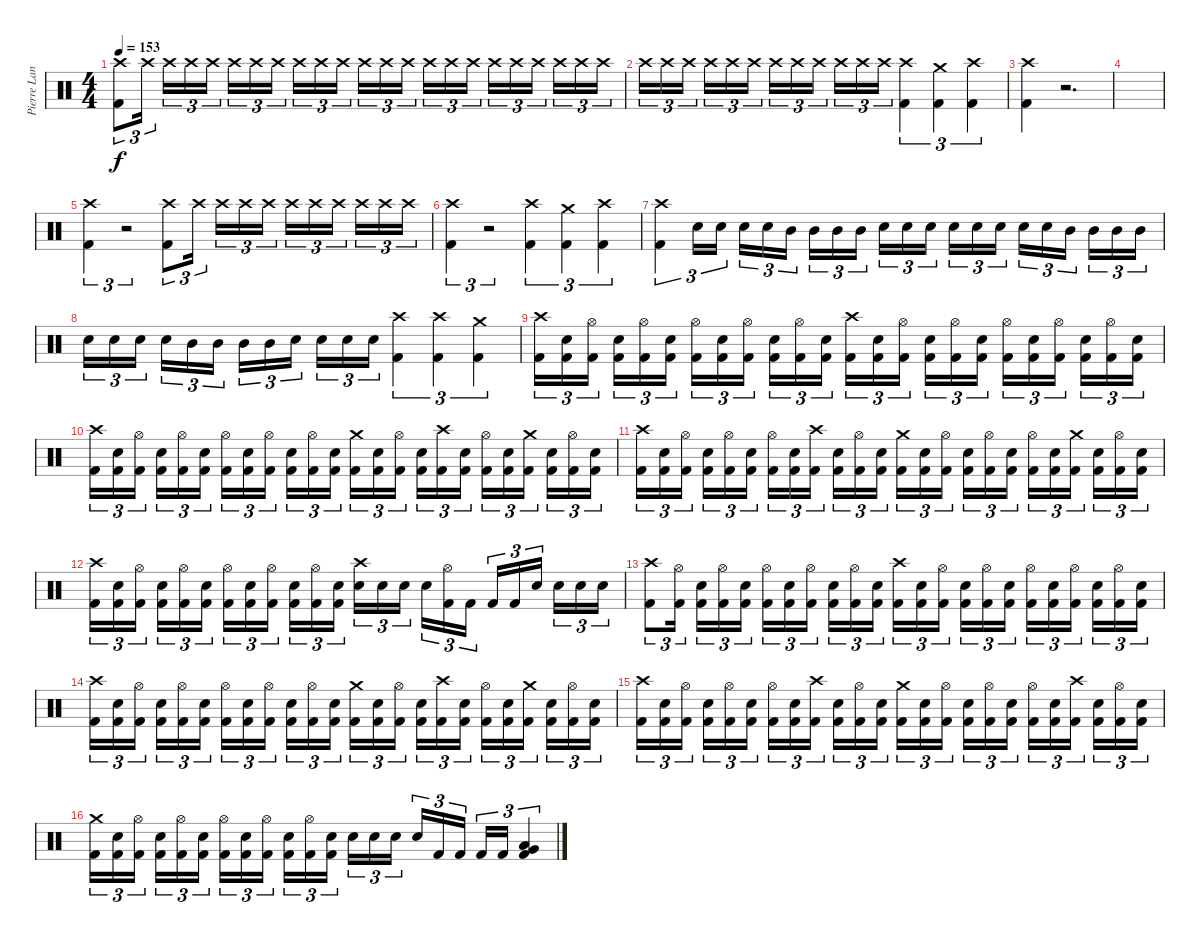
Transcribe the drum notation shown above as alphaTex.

\track ("Pierre Langlois (Drums)" "Pierre Lan") {instrument percussion}
\staff {score}
\articulation defaults
\ts (4 4)
\tempo 153
\clef neutral
\ks c
("Crash high (hit)" "Kick (hit) 2").8{tu (3 2) dy f} "Crash high (hit)".16{tu (3 2)} "Crash high (hit)".16{tu (3 2)} "Crash high (hit)".16{tu (3 2)} "Crash high (hit)".16{tu (3 2)} "Crash high (hit)".16{tu (3 2)} "Crash high (hit)".16{tu (3 2)} "Crash high (hit)".16{tu (3 2)} "Crash high (hit)".16{tu (3 2)} "Crash high (hit)".16{tu (3 2)} "Crash high (hit)".16{tu (3 2)} "Crash high (hit)".16{tu (3 2)} "Crash high (hit)".16{tu (3 2)} "Crash high (hit)".16{tu (3 2)} "Crash high (hit)".16{tu (3 2)} "Crash high (hit)".16{tu (3 2)} "Crash high (hit)".16{tu (3 2)} "Crash high (hit)".16{tu (3 2)} "Crash high (hit)".16{tu (3 2)} "Crash high (hit)".16{tu (3 2)} "Crash high (hit)".16{tu (3 2)} "Crash high (hit)".16{tu (3 2)} "Crash high (hit)".16{tu (3 2)} |
"Crash high (hit)".16{tu (3 2)} "Crash high (hit)".16{tu (3 2)} "Crash high (hit)".16{tu (3 2)} "Crash high (hit)".16{tu (3 2)} "Crash high (hit)".16{tu (3 2)} "Crash high (hit)".16{tu (3 2)} "Crash high (hit)".16{tu (3 2)} "Crash high (hit)".16{tu (3 2)} "Crash high (hit)".16{tu (3 2)} "Crash high (hit)".16{tu (3 2)} "Crash high (hit)".16{tu (3 2)} "Crash high (hit)".16{tu (3 2)} ("Crash high (hit)" "Kick (hit) 2").4{tu (3 2)} ("Crash medium (hit)" "Kick (hit) 2").4{tu (3 2)} ("Crash high (hit)" "Kick (hit) 2").4{tu (3 2)} |
("Crash high (hit)" "Kick (hit) 2").4 r.2{d} |
|
("Crash high (hit)" "Kick (hit) 2").4{tu (3 2)} r.2{tu (3 2)} ("Kick (hit) 2" "Crash high (hit)").8{tu (3 2)} "Crash high (hit)".16{tu (3 2)} "Crash high (hit)".16{tu (3 2)} "Crash high (hit)".16{tu (3 2)} "Crash high (hit)".16{tu (3 2)} "Crash high (hit)".16{tu (3 2)} "Crash high (hit)".16{tu (3 2)} "Crash high (hit)".16{tu (3 2)} "Crash high (hit)".16{tu (3 2)} "Crash high (hit)".16{tu (3 2)} "Crash high (hit)".16{tu (3 2)} |
("Kick (hit) 2" "Crash high (hit)").4{tu (3 2)} r.2{tu (3 2)} ("Crash high (hit)" "Kick (hit) 2").4{tu (3 2)} ("Crash medium (hit)" "Kick (hit) 2").4{tu (3 2)} ("Crash high (hit)" "Kick (hit) 2").4{tu (3 2)} |
("Crash high (hit)" "Kick (hit) 2").4{tu (3 2)} "Snare (hit) 2".16{tu (3 2)} "Snare (hit) 2".16{tu (3 2)} "Snare (hit) 2".16{tu (3 2)} "Snare (hit) 2".16{tu (3 2)} "Mid Tom (hit)".16{tu (3 2)} "Mid Tom (hit)".16{tu (3 2)} "Mid Tom (hit)".16{tu (3 2)} "Mid Tom (hit)".16{tu (3 2)} "Snare (hit) 2".16{tu (3 2)} "Snare (hit) 2".16{tu (3 2)} "Snare (hit) 2".16{tu (3 2)} "Snare (hit) 2".16{tu (3 2)} "Snare (hit) 2".16{tu (3 2)} "Snare (hit) 2".16{tu (3 2)} "Snare (hit) 2".16{tu (3 2)} "Snare (hit) 2".16{tu (3 2)} "Mid Tom (hit)".16{tu (3 2)} "Mid Tom (hit)".16{tu (3 2)} "Mid Tom (hit)".16{tu (3 2)} "Mid Tom (hit)".16{tu (3 2)} |
"Snare (hit) 2".16{tu (3 2)} "Snare (hit) 2".16{tu (3 2)} "Snare (hit) 2".16{tu (3 2)} "Snare (hit) 2".16{tu (3 2)} "Mid Tom (hit)".16{tu (3 2)} "Mid Tom (hit)".16{tu (3 2)} "Mid Tom (hit)".16{tu (3 2)} "Mid Tom (hit)".16{tu (3 2)} "Snare (hit) 2".16{tu (3 2)} "Snare (hit) 2".16{tu (3 2)} "Snare (hit) 2".16{tu (3 2)} "Snare (hit) 2".16{tu (3 2)} ("Crash high (hit)" "Kick (hit) 2").4{tu (3 2)} ("Crash high (hit)" "Kick (hit) 2").4{tu (3 2)} ("Crash medium (hit)" "Kick (hit) 2").4{tu (3 2)} |
("Crash high (hit)" "Kick (hit) 2").16{tu (3 2)} ("Snare (hit) 2" "Kick (hit) 2").16{tu (3 2)} ("Hi-Hat (open)" "Kick (hit) 2").16{tu (3 2)} ("Snare (hit) 2" "Kick (hit) 2").16{tu (3 2)} ("Hi-Hat (open)" "Kick (hit) 2").16{tu (3 2)} ("Snare (hit) 2" "Kick (hit) 2").16{tu (3 2)} ("Hi-Hat (open)" "Kick (hit) 2").16{tu (3 2)} ("Snare (hit) 2" "Kick (hit) 2").16{tu (3 2)} ("Hi-Hat (open)" "Kick (hit) 2").16{tu (3 2)} ("Snare (hit) 2" "Kick (hit) 2").16{tu (3 2)} ("Hi-Hat (open)" "Kick (hit) 2").16{tu (3 2)} ("Snare (hit) 2" "Kick (hit) 2").16{tu (3 2)} ("Crash high (hit)" "Kick (hit) 2").16{tu (3 2)} ("Snare (hit) 2" "Kick (hit) 2").16{tu (3 2)} ("Hi-Hat (open)" "Kick (hit) 2").16{tu (3 2)} ("Snare (hit) 2" "Kick (hit) 2").16{tu (3 2)} ("Hi-Hat (open)" "Kick (hit) 2").16{tu (3 2)} ("Snare (hit) 2" "Kick (hit) 2").16{tu (3 2)} ("Hi-Hat (open)" "Kick (hit) 2").16{tu (3 2)} ("Snare (hit) 2" "Kick (hit) 2").16{tu (3 2)} ("Hi-Hat (open)" "Kick (hit) 2").16{tu (3 2)} ("Snare (hit) 2" "Kick (hit) 2").16{tu (3 2)} ("Hi-Hat (open)" "Kick (hit) 2").16{tu (3 2)} ("Snare (hit) 2" "Kick (hit) 2").16{tu (3 2)} |
("Crash high (hit)" "Kick (hit) 2").16{tu (3 2)} ("Snare (hit) 2" "Kick (hit) 2").16{tu (3 2)} ("Hi-Hat (open)" "Kick (hit) 2").16{tu (3 2)} ("Snare (hit) 2" "Kick (hit) 2").16{tu (3 2)} ("Hi-Hat (open)" "Kick (hit) 2").16{tu (3 2)} ("Snare (hit) 2" "Kick (hit) 2").16{tu (3 2)} ("Hi-Hat (open)" "Kick (hit) 2").16{tu (3 2)} ("Snare (hit) 2" "Kick (hit) 2").16{tu (3 2)} ("Hi-Hat (open)" "Kick (hit) 2").16{tu (3 2)} ("Snare (hit) 2" "Kick (hit) 2").16{tu (3 2)} ("Hi-Hat (open)" "Kick (hit) 2").16{tu (3 2)} ("Snare (hit) 2" "Kick (hit) 2").16{tu (3 2)} ("Crash medium (hit)" "Kick (hit) 2").16{tu (3 2)} ("Snare (hit) 2" "Kick (hit) 2").16{tu (3 2)} ("Hi-Hat (open)" "Kick (hit) 2").16{tu (3 2)} ("Snare (hit) 2" "Kick (hit) 2").16{tu (3 2)} ("Crash high (hit)" "Kick (hit) 2").16{tu (3 2)} ("Snare (hit) 2" "Kick (hit) 2").16{tu (3 2)} ("Hi-Hat (open)" "Kick (hit) 2").16{tu (3 2)} ("Snare (hit) 2" "Kick (hit) 2").16{tu (3 2)} ("Crash medium (hit)" "Kick (hit) 2").16{tu (3 2)} ("Snare (hit) 2" "Kick (hit) 2").16{tu (3 2)} ("Hi-Hat (open)" "Kick (hit) 2").16{tu (3 2)} ("Snare (hit) 2" "Kick (hit) 2").16{tu (3 2)} |
("Crash high (hit)" "Kick (hit) 2").16{tu (3 2)} ("Snare (hit) 2" "Kick (hit) 2").16{tu (3 2)} ("Hi-Hat (open)" "Kick (hit) 2").16{tu (3 2)} ("Snare (hit) 2" "Kick (hit) 2").16{tu (3 2)} ("Hi-Hat (open)" "Kick (hit) 2").16{tu (3 2)} ("Snare (hit) 2" "Kick (hit) 2").16{tu (3 2)} ("Hi-Hat (open)" "Kick (hit) 2").16{tu (3 2)} ("Snare (hit) 2" "Kick (hit) 2").16{tu (3 2)} ("Crash high (hit)" "Kick (hit) 2").16{tu (3 2)} ("Snare (hit) 2" "Kick (hit) 2").16{tu (3 2)} ("Hi-Hat (open)" "Kick (hit) 2").16{tu (3 2)} ("Snare (hit) 2" "Kick (hit) 2").16{tu (3 2)} ("Crash medium (hit)" "Kick (hit) 2").16{tu (3 2)} ("Snare (hit) 2" "Kick (hit) 2").16{tu (3 2)} ("Hi-Hat (open)" "Kick (hit) 2").16{tu (3 2)} ("Snare (hit) 2" "Kick (hit) 2").16{tu (3 2)} ("Hi-Hat (open)" "Kick (hit) 2").16{tu (3 2)} ("Snare (hit) 2" "Kick (hit) 2").16{tu (3 2)} ("Hi-Hat (open)" "Kick (hit) 2").16{tu (3 2)} ("Snare (hit) 2" "Kick (hit) 2").16{tu (3 2)} ("Crash medium (hit)" "Kick (hit) 2").16{tu (3 2)} ("Snare (hit) 2" "Kick (hit) 2").16{tu (3 2)} ("Hi-Hat (open)" "Kick (hit) 2").16{tu (3 2)} ("Snare (hit) 2" "Kick (hit) 2").16{tu (3 2)} |
("Crash high (hit)" "Kick (hit) 2").16{tu (3 2)} ("Snare (hit) 2" "Kick (hit) 2").16{tu (3 2)} ("Hi-Hat (open)" "Kick (hit) 2").16{tu (3 2)} ("Snare (hit) 2" "Kick (hit) 2").16{tu (3 2)} ("Hi-Hat (open)" "Kick (hit) 2").16{tu (3 2)} ("Snare (hit) 2" "Kick (hit) 2").16{tu (3 2)} ("Hi-Hat (open)" "Kick (hit) 2").16{tu (3 2)} ("Snare (hit) 2" "Kick (hit) 2").16{tu (3 2)} ("Hi-Hat (open)" "Kick (hit) 2").16{tu (3 2)} ("Snare (hit) 2" "Kick (hit) 2").16{tu (3 2)} ("Hi-Hat (open)" "Kick (hit) 2").16{tu (3 2)} ("Snare (hit) 2" "Kick (hit) 2").16{tu (3 2)} ("Snare (hit) 2" "Crash high (hit)").16{tu (3 2)} "Snare (hit) 2".16{tu (3 2)} "Snare (hit) 2".16{tu (3 2)} "Snare (hit) 2".16{tu (3 2)} ("Hi-Hat (open)" "Kick (hit) 2").16{tu (3 2)} "Kick (hit) 2".16{tu (3 2)} "Kick (hit) 2".16{tu (3 2)} "Kick (hit) 2".16{tu (3 2)} "Snare (hit) 2".16{tu (3 2)} "Snare (hit) 2".16{tu (3 2)} "Snare (hit) 2".16{tu (3 2)} "Snare (hit) 2".16{tu (3 2)} |
("Crash high (hit)" "Kick (hit) 2").8{tu (3 2)} ("Hi-Hat (open)" "Kick (hit) 2").16{tu (3 2)} ("Snare (hit) 2" "Kick (hit) 2").16{tu (3 2)} ("Hi-Hat (open)" "Kick (hit) 2").16{tu (3 2)} ("Snare (hit) 2" "Kick (hit) 2").16{tu (3 2)} ("Hi-Hat (open)" "Kick (hit) 2").16{tu (3 2)} ("Snare (hit) 2" "Kick (hit) 2").16{tu (3 2)} ("Hi-Hat (open)" "Kick (hit) 2").16{tu (3 2)} ("Snare (hit) 2" "Kick (hit) 2").16{tu (3 2)} ("Hi-Hat (open)" "Kick (hit) 2").16{tu (3 2)} ("Snare (hit) 2" "Kick (hit) 2").16{tu (3 2)} ("Crash high (hit)" "Kick (hit) 2").16{tu (3 2)} ("Snare (hit) 2" "Kick (hit) 2").16{tu (3 2)} ("Hi-Hat (open)" "Kick (hit) 2").16{tu (3 2)} ("Snare (hit) 2" "Kick (hit) 2").16{tu (3 2)} ("Hi-Hat (open)" "Kick (hit) 2").16{tu (3 2)} ("Snare (hit) 2" "Kick (hit) 2").16{tu (3 2)} ("Hi-Hat (open)" "Kick (hit) 2").16{tu (3 2)} ("Snare (hit) 2" "Kick (hit) 2").16{tu (3 2)} ("Hi-Hat (open)" "Kick (hit) 2").16{tu (3 2)} ("Snare (hit) 2" "Kick (hit) 2").16{tu (3 2)} ("Hi-Hat (open)" "Kick (hit) 2").16{tu (3 2)} ("Snare (hit) 2" "Kick (hit) 2").16{tu (3 2)} |
("Crash high (hit)" "Kick (hit) 2").16{tu (3 2)} ("Snare (hit) 2" "Kick (hit) 2").16{tu (3 2)} ("Hi-Hat (open)" "Kick (hit) 2").16{tu (3 2)} ("Snare (hit) 2" "Kick (hit) 2").16{tu (3 2)} ("Hi-Hat (open)" "Kick (hit) 2").16{tu (3 2)} ("Snare (hit) 2" "Kick (hit) 2").16{tu (3 2)} ("Hi-Hat (open)" "Kick (hit) 2").16{tu (3 2)} ("Snare (hit) 2" "Kick (hit) 2").16{tu (3 2)} ("Hi-Hat (open)" "Kick (hit) 2").16{tu (3 2)} ("Snare (hit) 2" "Kick (hit) 2").16{tu (3 2)} ("Hi-Hat (open)" "Kick (hit) 2").16{tu (3 2)} ("Snare (hit) 2" "Kick (hit) 2").16{tu (3 2)} ("Crash medium (hit)" "Kick (hit) 2").16{tu (3 2)} ("Snare (hit) 2" "Kick (hit) 2").16{tu (3 2)} ("Hi-Hat (open)" "Kick (hit) 2").16{tu (3 2)} ("Snare (hit) 2" "Kick (hit) 2").16{tu (3 2)} ("Crash high (hit)" "Kick (hit) 2").16{tu (3 2)} ("Snare (hit) 2" "Kick (hit) 2").16{tu (3 2)} ("Hi-Hat (open)" "Kick (hit) 2").16{tu (3 2)} ("Snare (hit) 2" "Kick (hit) 2").16{tu (3 2)} ("Crash medium (hit)" "Kick (hit) 2").16{tu (3 2)} ("Snare (hit) 2" "Kick (hit) 2").16{tu (3 2)} ("Hi-Hat (open)" "Kick (hit) 2").16{tu (3 2)} ("Snare (hit) 2" "Kick (hit) 2").16{tu (3 2)} |
("Crash high (hit)" "Kick (hit) 2").16{tu (3 2)} ("Snare (hit) 2" "Kick (hit) 2").16{tu (3 2)} ("Hi-Hat (open)" "Kick (hit) 2").16{tu (3 2)} ("Snare (hit) 2" "Kick (hit) 2").16{tu (3 2)} ("Hi-Hat (open)" "Kick (hit) 2").16{tu (3 2)} ("Snare (hit) 2" "Kick (hit) 2").16{tu (3 2)} ("Hi-Hat (open)" "Kick (hit) 2").16{tu (3 2)} ("Snare (hit) 2" "Kick (hit) 2").16{tu (3 2)} ("Crash high (hit)" "Kick (hit) 2").16{tu (3 2)} ("Snare (hit) 2" "Kick (hit) 2").16{tu (3 2)} ("Hi-Hat (open)" "Kick (hit) 2").16{tu (3 2)} ("Snare (hit) 2" "Kick (hit) 2").16{tu (3 2)} ("Crash medium (hit)" "Kick (hit) 2").16{tu (3 2)} ("Snare (hit) 2" "Kick (hit) 2").16{tu (3 2)} ("Hi-Hat (open)" "Kick (hit) 2").16{tu (3 2)} ("Snare (hit) 2" "Kick (hit) 2").16{tu (3 2)} ("Hi-Hat (open)" "Kick (hit) 2").16{tu (3 2)} ("Snare (hit) 2" "Kick (hit) 2").16{tu (3 2)} ("Hi-Hat (open)" "Kick (hit) 2").16{tu (3 2)} ("Snare (hit) 2" "Kick (hit) 2").16{tu (3 2)} ("Crash high (hit)" "Kick (hit) 2").16{tu (3 2)} ("Snare (hit) 2" "Kick (hit) 2").16{tu (3 2)} ("Hi-Hat (open)" "Kick (hit) 2").16{tu (3 2)} ("Snare (hit) 2" "Kick (hit) 2").16{tu (3 2)} |
("Crash medium (hit)" "Kick (hit) 2").16{tu (3 2)} ("Snare (hit) 2" "Kick (hit) 2").16{tu (3 2)} ("Hi-Hat (open)" "Kick (hit) 2").16{tu (3 2)} ("Snare (hit) 2" "Kick (hit) 2").16{tu (3 2)} ("Hi-Hat (open)" "Kick (hit) 2").16{tu (3 2)} ("Snare (hit) 2" "Kick (hit) 2").16{tu (3 2)} ("Hi-Hat (open)" "Kick (hit) 2").16{tu (3 2)} ("Snare (hit) 2" "Kick (hit) 2").16{tu (3 2)} ("Hi-Hat (open)" "Kick (hit) 2").16{tu (3 2)} ("Snare (hit) 2" "Kick (hit) 2").16{tu (3 2)} ("Hi-Hat (open)" "Kick (hit) 2").16{tu (3 2)} ("Snare (hit) 2" "Kick (hit) 2").16{tu (3 2)} "Snare (hit) 2".16{tu (3 2)} "Snare (hit) 2".16{tu (3 2)} "Snare (hit) 2".16{tu (3 2)} "Snare (hit) 2".16{tu (3 2)} "Kick (hit) 2".16{tu (3 2)} "Kick (hit) 2".16{tu (3 2)} "Kick (hit) 2".16{tu (3 2)} "Kick (hit) 2".16{tu (3 2)} ("Low Floor Tom (hit)" "Very Low Tom (hit)" "Kick (hit) 2").4{tu (3 2)}
